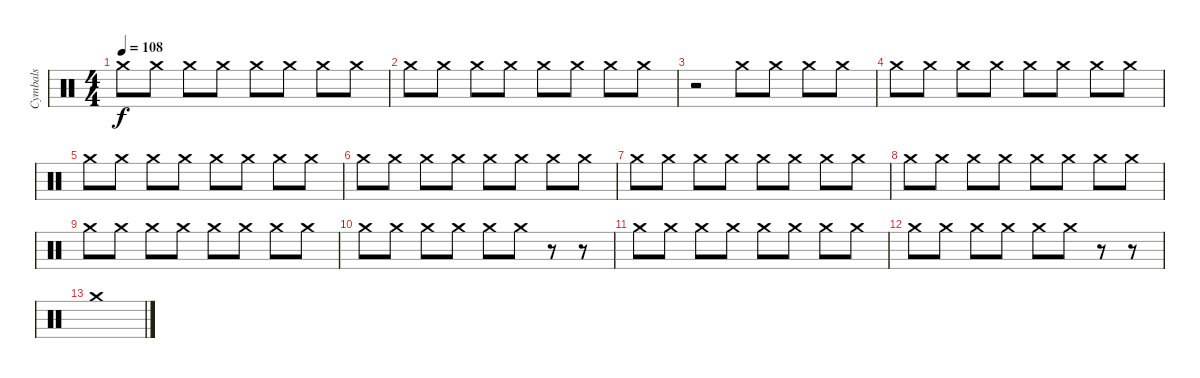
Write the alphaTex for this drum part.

\track ("Cymbals" "Cymbals") {instrument percussion}
\staff {score}
\articulation defaults
\ts (4 4)
\tempo 108
\clef neutral
\ks c "Crash medium (hit)".8{dy f} "Crash medium (hit)".8 "Crash medium (hit)".8 "Crash medium (hit)".8 "Crash medium (hit)".8 "Crash medium (hit)".8 "Crash medium (hit)".8 "Crash medium (hit)".8
|
"Crash medium (hit)".8 "Crash medium (hit)".8 "Crash medium (hit)".8 "Crash medium (hit)".8 "Crash medium (hit)".8 "Crash medium (hit)".8 "Crash medium (hit)".8 "Crash medium (hit)".8 |
r.2 "Crash medium (hit)".8 "Crash medium (hit)".8 "Crash medium (hit)".8 "Crash medium (hit)".8 |
"Crash medium (hit)".8 "Crash medium (hit)".8 "Crash medium (hit)".8 "Crash medium (hit)".8 "Crash medium (hit)".8 "Crash medium (hit)".8 "Crash medium (hit)".8 "Crash medium (hit)".8 |
"Crash medium (hit)".8 "Crash medium (hit)".8 "Crash medium (hit)".8 "Crash medium (hit)".8 "Crash medium (hit)".8 "Crash medium (hit)".8 "Crash medium (hit)".8 "Crash medium (hit)".8 |
"Crash medium (hit)".8 "Crash medium (hit)".8 "Crash medium (hit)".8 "Crash medium (hit)".8 "Crash medium (hit)".8 "Crash medium (hit)".8 "Crash medium (hit)".8 "Crash medium (hit)".8 |
"Crash medium (hit)".8 "Crash medium (hit)".8 "Crash medium (hit)".8 "Crash medium (hit)".8 "Crash medium (hit)".8 "Crash medium (hit)".8 "Crash medium (hit)".8 "Crash medium (hit)".8 |
"Crash medium (hit)".8 "Crash medium (hit)".8 "Crash medium (hit)".8 "Crash medium (hit)".8 "Crash medium (hit)".8 "Crash medium (hit)".8 "Crash medium (hit)".8 "Crash medium (hit)".8 |
"Crash medium (hit)".8 "Crash medium (hit)".8 "Crash medium (hit)".8 "Crash medium (hit)".8 "Crash medium (hit)".8 "Crash medium (hit)".8 "Crash medium (hit)".8 "Crash medium (hit)".8 |
"Crash medium (hit)".8 "Crash medium (hit)".8 "Crash medium (hit)".8 "Crash medium (hit)".8 "Crash medium (hit)".8 "Crash medium (hit)".8 r.8 r.8 |
"Crash medium (hit)".8 "Crash medium (hit)".8 "Crash medium (hit)".8 "Crash medium (hit)".8 "Crash medium (hit)".8 "Crash medium (hit)".8 "Crash medium (hit)".8 "Crash medium (hit)".8 |
"Crash medium (hit)".8 "Crash medium (hit)".8 "Crash medium (hit)".8 "Crash medium (hit)".8 "Crash medium (hit)".8 "Crash medium (hit)".8 r.8 r.8 |
"Crash medium (hit)".1
